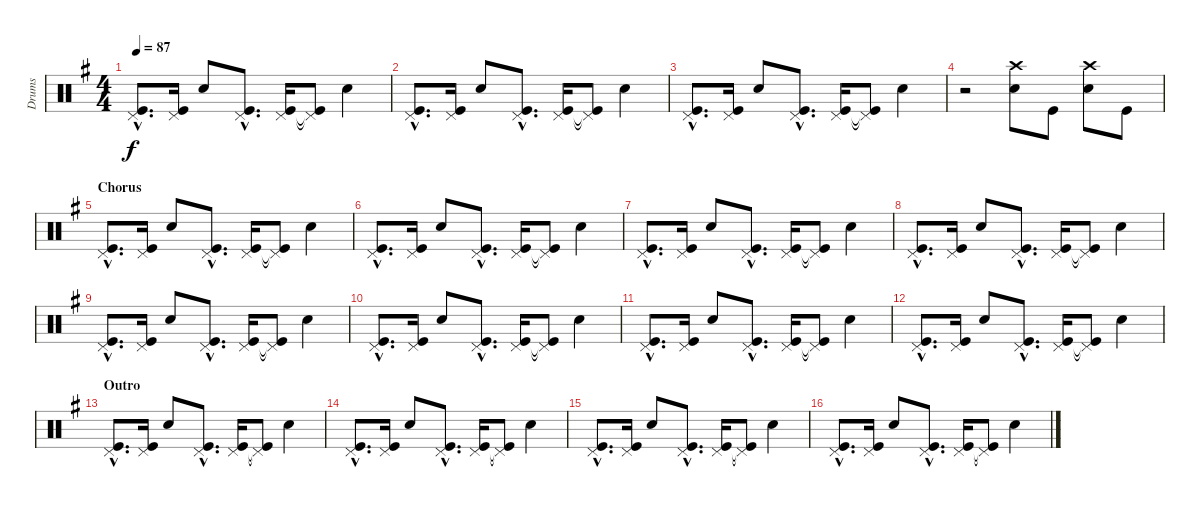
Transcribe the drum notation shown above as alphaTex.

\track ("Drums" "Drums") {instrument percussion}
\staff {score}
\articulation defaults
\ts (4 4)
\tempo 87
\clef neutral
\ks g
("Kick (hit)"{hac} "Pedal Hi-Hat (hit)"{hac}).8{d dy f} ("Kick (hit)" "Pedal Hi-Hat (hit)").16 "Snare (hit) 2".8 ("Kick (hit)"{hac} "Pedal Hi-Hat (hit)"{hac}).8{d} ("Kick (hit)" "Pedal Hi-Hat (hit)").16 ("Kick (hit)"{t} "Pedal Hi-Hat (hit)"{t}).8 "Snare (hit) 2".4 |
("Kick (hit)"{hac} "Pedal Hi-Hat (hit)"{hac}).8{d} ("Kick (hit)" "Pedal Hi-Hat (hit)").16 "Snare (hit) 2".8 ("Kick (hit)"{hac} "Pedal Hi-Hat (hit)"{hac}).8{d} ("Kick (hit)" "Pedal Hi-Hat (hit)").16 ("Kick (hit)"{t} "Pedal Hi-Hat (hit)"{t}).8 "Snare (hit) 2".4 |
("Kick (hit)"{hac} "Pedal Hi-Hat (hit)"{hac}).8{d} ("Kick (hit)" "Pedal Hi-Hat (hit)").16 "Snare (hit) 2".8 ("Kick (hit)"{hac} "Pedal Hi-Hat (hit)"{hac}).8{d} ("Kick (hit)" "Pedal Hi-Hat (hit)").16 ("Kick (hit)"{t} "Pedal Hi-Hat (hit)"{t}).8 "Snare (hit) 2".4 |
r.2 ("Crash high (hit)" "Snare (hit) 2").8 "Kick (hit)".8 ("Crash high (hit)" "Snare (hit) 2").8 "Kick (hit)".8 |
\section ("" "Chorus")
("Kick (hit)"{hac} "Pedal Hi-Hat (hit)"{hac}).8{d} ("Kick (hit)" "Pedal Hi-Hat (hit)").16 "Snare (hit) 2".8 ("Kick (hit)"{hac} "Pedal Hi-Hat (hit)"{hac}).8{d} ("Kick (hit)" "Pedal Hi-Hat (hit)").16 ("Kick (hit)"{t} "Pedal Hi-Hat (hit)"{t}).8 "Snare (hit) 2".4 |
("Kick (hit)"{hac} "Pedal Hi-Hat (hit)"{hac}).8{d} ("Kick (hit)" "Pedal Hi-Hat (hit)").16 "Snare (hit) 2".8 ("Kick (hit)"{hac} "Pedal Hi-Hat (hit)"{hac}).8{d} ("Kick (hit)" "Pedal Hi-Hat (hit)").16 ("Kick (hit)"{t} "Pedal Hi-Hat (hit)"{t}).8 "Snare (hit) 2".4 |
("Kick (hit)"{hac} "Pedal Hi-Hat (hit)"{hac}).8{d} ("Kick (hit)" "Pedal Hi-Hat (hit)").16 "Snare (hit) 2".8 ("Kick (hit)"{hac} "Pedal Hi-Hat (hit)"{hac}).8{d} ("Kick (hit)" "Pedal Hi-Hat (hit)").16 ("Kick (hit)"{t} "Pedal Hi-Hat (hit)"{t}).8 "Snare (hit) 2".4 |
("Kick (hit)"{hac} "Pedal Hi-Hat (hit)"{hac}).8{d} ("Kick (hit)" "Pedal Hi-Hat (hit)").16 "Snare (hit) 2".8 ("Kick (hit)"{hac} "Pedal Hi-Hat (hit)"{hac}).8{d} ("Kick (hit)" "Pedal Hi-Hat (hit)").16 ("Kick (hit)"{t} "Pedal Hi-Hat (hit)"{t}).8 "Snare (hit) 2".4 |
("Kick (hit)"{hac} "Pedal Hi-Hat (hit)"{hac}).8{d} ("Kick (hit)" "Pedal Hi-Hat (hit)").16 "Snare (hit) 2".8 ("Kick (hit)"{hac} "Pedal Hi-Hat (hit)"{hac}).8{d} ("Kick (hit)" "Pedal Hi-Hat (hit)").16 ("Kick (hit)"{t} "Pedal Hi-Hat (hit)"{t}).8 "Snare (hit) 2".4 |
("Kick (hit)"{hac} "Pedal Hi-Hat (hit)"{hac}).8{d} ("Kick (hit)" "Pedal Hi-Hat (hit)").16 "Snare (hit) 2".8 ("Kick (hit)"{hac} "Pedal Hi-Hat (hit)"{hac}).8{d} ("Kick (hit)" "Pedal Hi-Hat (hit)").16 ("Kick (hit)"{t} "Pedal Hi-Hat (hit)"{t}).8 "Snare (hit) 2".4 |
("Kick (hit)"{hac} "Pedal Hi-Hat (hit)"{hac}).8{d} ("Kick (hit)" "Pedal Hi-Hat (hit)").16 "Snare (hit) 2".8 ("Kick (hit)"{hac} "Pedal Hi-Hat (hit)"{hac}).8{d} ("Kick (hit)" "Pedal Hi-Hat (hit)").16 ("Kick (hit)"{t} "Pedal Hi-Hat (hit)"{t}).8 "Snare (hit) 2".4 |
("Kick (hit)"{hac} "Pedal Hi-Hat (hit)"{hac}).8{d} ("Kick (hit)" "Pedal Hi-Hat (hit)").16 "Snare (hit) 2".8 ("Kick (hit)"{hac} "Pedal Hi-Hat (hit)"{hac}).8{d} ("Kick (hit)" "Pedal Hi-Hat (hit)").16 ("Kick (hit)"{t} "Pedal Hi-Hat (hit)"{t}).8 "Snare (hit) 2".4 |
\section ("" "Outro")
("Kick (hit)"{hac} "Pedal Hi-Hat (hit)"{hac}).8{d} ("Kick (hit)" "Pedal Hi-Hat (hit)").16 "Snare (hit) 2".8 ("Kick (hit)"{hac} "Pedal Hi-Hat (hit)"{hac}).8{d} ("Kick (hit)" "Pedal Hi-Hat (hit)").16 ("Kick (hit)"{t} "Pedal Hi-Hat (hit)"{t}).8 "Snare (hit) 2".4 |
("Kick (hit)"{hac} "Pedal Hi-Hat (hit)"{hac}).8{d} ("Kick (hit)" "Pedal Hi-Hat (hit)").16 "Snare (hit) 2".8 ("Kick (hit)"{hac} "Pedal Hi-Hat (hit)"{hac}).8{d} ("Kick (hit)" "Pedal Hi-Hat (hit)").16 ("Kick (hit)"{t} "Pedal Hi-Hat (hit)"{t}).8 "Snare (hit) 2".4 |
("Kick (hit)"{hac} "Pedal Hi-Hat (hit)"{hac}).8{d} ("Kick (hit)" "Pedal Hi-Hat (hit)").16 "Snare (hit) 2".8 ("Kick (hit)"{hac} "Pedal Hi-Hat (hit)"{hac}).8{d} ("Kick (hit)" "Pedal Hi-Hat (hit)").16 ("Kick (hit)"{t} "Pedal Hi-Hat (hit)"{t}).8 "Snare (hit) 2".4 |
("Kick (hit)"{hac} "Pedal Hi-Hat (hit)"{hac}).8{d} ("Kick (hit)" "Pedal Hi-Hat (hit)").16 "Snare (hit) 2".8 ("Kick (hit)"{hac} "Pedal Hi-Hat (hit)"{hac}).8{d} ("Kick (hit)" "Pedal Hi-Hat (hit)").16 ("Kick (hit)"{t} "Pedal Hi-Hat (hit)"{t}).8 "Snare (hit) 2".4
